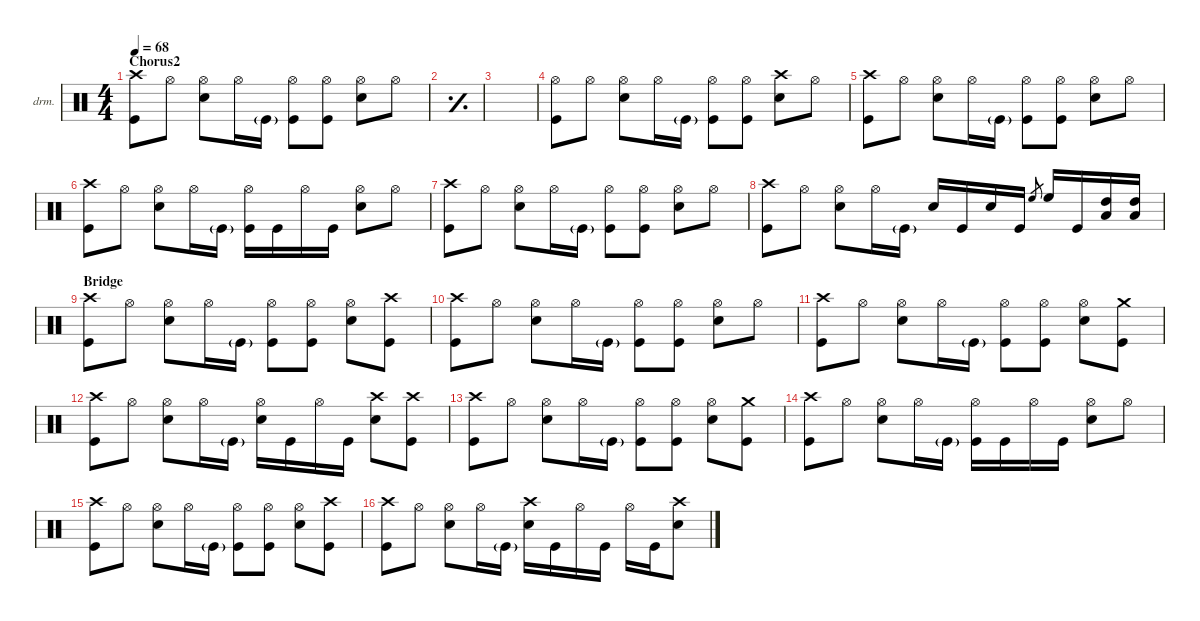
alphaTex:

\defaultSystemsLayout 4
\hideDynamics
\bracketExtendMode nobrackets
\firstSystemTrackNameOrientation horizontal
\track ("Drumkit" "drm.") {defaultSystemsLayout 4 instrument percussion}
\staff {score}
\articulation defaults
\ts (4 4)
\section ("" "Chorus2")
\tempo 68
\clef neutral
\scale
0.265955
\ks c
("Kick (hit)" "Crash high (hit)").8{dy mf} "Hi-Hat (open)".8 ("Hi-Hat (open)" "Snare (hit) 2").8 "Hi-Hat (open)".16 "Kick (hit)"{g}.16 ("Kick (hit)" "Hi-Hat (open)").8 ("Kick (hit)" "Hi-Hat (open)").8 ("Hi-Hat (open)" "Snare (hit) 2").8 "Hi-Hat (open)".8 |
\simile simple
\scale
0.244682 |
\scale
0.244682 |
\simile none
\scale
0.244682 ("Kick (hit)" "Hi-Hat (open)").8 "Hi-Hat (open)".8 ("Hi-Hat (open)" "Snare (hit) 2").8 "Hi-Hat (open)".16 "Kick (hit)"{g}.16 ("Kick (hit)" "Hi-Hat (open)").8 ("Kick (hit)" "Hi-Hat (open)").8 ("Snare (hit) 2" "Crash high (hit)").8 "Hi-Hat (open)".8 |
\scale
0.26485 ("Kick (hit)" "Crash high (hit)").8 "Hi-Hat (open)".8 ("Hi-Hat (open)" "Snare (hit) 2").8 "Hi-Hat (open)".16 "Kick (hit)"{g}.16 ("Kick (hit)" "Hi-Hat (open)").8 ("Kick (hit)" "Hi-Hat (open)").8 ("Hi-Hat (open)" "Snare (hit) 2").8 "Hi-Hat (open)".8 |
\scale
0.243576 ("Kick (hit)" "Crash high (hit)").8 "Hi-Hat (open)".8 ("Hi-Hat (open)" "Snare (hit) 2").8 "Hi-Hat (open)".16 "Kick (hit)"{g}.16 ("Kick (hit)" "Hi-Hat (open)").16 "Kick (hit)".16 "Hi-Hat (open)".16 "Kick (hit)".16 ("Hi-Hat (open)" "Snare (hit) 2").8 "Hi-Hat (open)".8 |
\scale
0.243576 ("Kick (hit)" "Crash high (hit)").8 "Hi-Hat (open)".8 ("Hi-Hat (open)" "Snare (hit) 2").8 "Hi-Hat (open)".16 "Kick (hit)"{g}.16 ("Kick (hit)" "Hi-Hat (open)").8 ("Kick (hit)" "Hi-Hat (open)").8 ("Hi-Hat (open)" "Snare (hit) 2").8 "Hi-Hat (open)".8 |
\scale
0.247997 ("Kick (hit)" "Crash high (hit)").8 "Hi-Hat (open)".8 ("Hi-Hat (open)" "Snare (hit) 2").8 "Hi-Hat (open)".16 "Kick (hit)"{g}.16 "Snare (hit) 2".16 "Kick (hit)".16 "Snare (hit) 2".16 "Kick (hit)".16 "High Floor Tom (hit)".8{gr} "High Floor Tom (hit)".16 "Kick (hit)".16 ("Low Tom (hit)" "High Tom (hit)").16 ("Low Tom (hit)" "High Tom (hit)").16 |
\section ("" "Bridge")
\scale
0.265955 ("Kick (hit)" "Crash high (hit)").8 "Hi-Hat (open)".8 ("Hi-Hat (open)" "Snare (hit) 2").8 "Hi-Hat (open)".16 "Kick (hit)"{g}.16 ("Kick (hit)" "Hi-Hat (open)").8 ("Hi-Hat (open)" "Kick (hit)").8 ("Hi-Hat (open)" "Snare (hit) 2").8 ("Kick (hit)" "Crash high (hit)").8 |
\scale
0.244682 ("Kick (hit)" "Crash high (hit)").8 "Hi-Hat (open)".8 ("Hi-Hat (open)" "Snare (hit) 2").8 "Hi-Hat (open)".16 "Kick (hit)"{g}.16 ("Kick (hit)" "Hi-Hat (open)").8 ("Kick (hit)" "Hi-Hat (open)").8 ("Hi-Hat (open)" "Snare (hit) 2").8 "Hi-Hat (open)".8 |
\scale
0.244682 ("Kick (hit)" "Crash high (hit)").8 "Hi-Hat (open)".8 ("Hi-Hat (open)" "Snare (hit) 2").8 "Hi-Hat (open)".16 "Kick (hit)"{g}.16 ("Kick (hit)" "Hi-Hat (open)").8 ("Hi-Hat (open)" "Kick (hit)").8 ("Hi-Hat (open)" "Snare (hit) 2").8 ("Crash medium (hit)" "Kick (hit)").8 |
\scale
0.244682 ("Kick (hit)" "Crash high (hit)").8 "Hi-Hat (open)".8 ("Hi-Hat (open)" "Snare (hit) 2").8 "Hi-Hat (open)".16 "Kick (hit)"{g}.16 ("Hi-Hat (open)" "Snare (hit) 2").16 "Kick (hit)".16 "Hi-Hat (open)".16 "Kick (hit)".16 ("Snare (hit) 2" "Crash high (hit)").8 ("Kick (hit)" "Crash high (hit)").8 |
\scale
0.26485 ("Kick (hit)" "Crash high (hit)").8 "Hi-Hat (open)".8 ("Hi-Hat (open)" "Snare (hit) 2").8 "Hi-Hat (open)".16 "Kick (hit)"{g}.16 ("Kick (hit)" "Hi-Hat (open)").8 ("Hi-Hat (open)" "Kick (hit)").8 ("Hi-Hat (open)" "Snare (hit) 2").8 ("Crash medium (hit)" "Kick (hit)").8 |
\scale
0.243576 ("Kick (hit)" "Crash high (hit)").8 "Hi-Hat (open)".8 ("Hi-Hat (open)" "Snare (hit) 2").8 "Hi-Hat (open)".16 "Kick (hit)"{g}.16 ("Kick (hit)" "Hi-Hat (open)").16 "Kick (hit)".16 "Hi-Hat (open)".16 "Kick (hit)".16 ("Hi-Hat (open)" "Snare (hit) 2").8 "Hi-Hat (open)".8 |
\scale
0.243576 ("Kick (hit)" "Crash high (hit)").8 "Hi-Hat (open)".8 ("Hi-Hat (open)" "Snare (hit) 2").8 "Hi-Hat (open)".16 "Kick (hit)"{g}.16 ("Kick (hit)" "Hi-Hat (open)").8 ("Kick (hit)" "Hi-Hat (open)").8 ("Hi-Hat (open)" "Snare (hit) 2").8 ("Kick (hit)" "Crash high (hit)").8 |
\scale
0.247997 ("Kick (hit)" "Crash high (hit)").8 "Hi-Hat (open)".8 ("Hi-Hat (open)" "Snare (hit) 2").8 "Hi-Hat (open)".16 "Kick (hit)"{g}.16 ("Snare (hit) 2" "Crash high (hit)").16 "Kick (hit)".16 "Hi-Hat (open)".16 "Kick (hit)".16 "Hi-Hat (open)".16 "Kick (hit)".16 ("Crash high (hit)" "Snare (hit) 2").8
